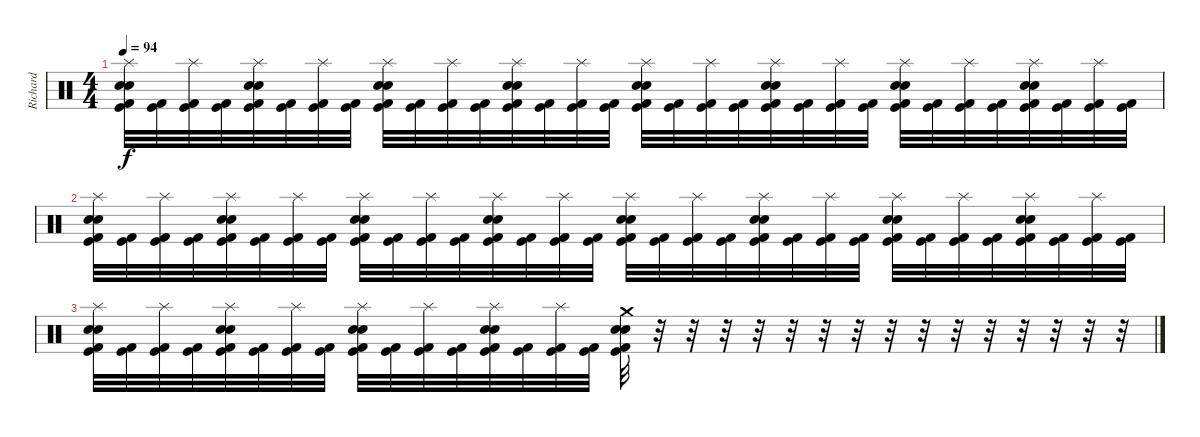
\track ("Richard" "Richard") {instrument percussion}
\staff {score}
\articulation defaults
\ts (4 4)
\tempo 94
\clef neutral
\ks c
("Splash (hit)" "Snare (hit) 2" "Electric Snare (hit)" "Kick (hit)" "Kick (hit) 2").32{dy f} ("Kick (hit)" "Kick (hit) 2").32 ("Splash (hit)" "Kick (hit)" "Kick (hit) 2").32 ("Kick (hit)" "Kick (hit) 2").32 ("Splash (hit)" "Snare (hit) 2" "Electric Snare (hit)" "Kick (hit)" "Kick (hit) 2").32 ("Kick (hit)" "Kick (hit) 2").32 ("Splash (hit)" "Kick (hit)" "Kick (hit) 2").32 ("Kick (hit)" "Kick (hit) 2").32 ("Splash (hit)" "Snare (hit) 2" "Electric Snare (hit)" "Kick (hit)" "Kick (hit) 2").32 ("Kick (hit)" "Kick (hit) 2").32 ("Splash (hit)" "Kick (hit)" "Kick (hit) 2").32 ("Kick (hit)" "Kick (hit) 2").32 ("Splash (hit)" "Snare (hit) 2" "Electric Snare (hit)" "Kick (hit)" "Kick (hit) 2").32 ("Kick (hit)" "Kick (hit) 2").32 ("Splash (hit)" "Kick (hit)" "Kick (hit) 2").32 ("Kick (hit)" "Kick (hit) 2").32 ("Splash (hit)" "Snare (hit) 2" "Electric Snare (hit)" "Kick (hit)" "Kick (hit) 2").32 ("Kick (hit)" "Kick (hit) 2").32 ("Splash (hit)" "Kick (hit)" "Kick (hit) 2").32 ("Kick (hit)" "Kick (hit) 2").32 ("Splash (hit)" "Snare (hit) 2" "Electric Snare (hit)" "Kick (hit)" "Kick (hit) 2").32 ("Kick (hit)" "Kick (hit) 2").32 ("Splash (hit)" "Kick (hit)" "Kick (hit) 2").32 ("Kick (hit)" "Kick (hit) 2").32 ("Splash (hit)" "Snare (hit) 2" "Electric Snare (hit)" "Kick (hit)" "Kick (hit) 2").32 ("Kick (hit)" "Kick (hit) 2").32 ("Splash (hit)" "Kick (hit)" "Kick (hit) 2").32 ("Kick (hit)" "Kick (hit) 2").32 ("Splash (hit)" "Snare (hit) 2" "Electric Snare (hit)" "Kick (hit)" "Kick (hit) 2").32 ("Kick (hit)" "Kick (hit) 2").32 ("Splash (hit)" "Kick (hit)" "Kick (hit) 2").32 ("Kick (hit)" "Kick (hit) 2").32 |
("Splash (hit)" "Snare (hit) 2" "Electric Snare (hit)" "Kick (hit)" "Kick (hit) 2").32 ("Kick (hit)" "Kick (hit) 2").32 ("Splash (hit)" "Kick (hit)" "Kick (hit) 2").32 ("Kick (hit)" "Kick (hit) 2").32 ("Splash (hit)" "Snare (hit) 2" "Electric Snare (hit)" "Kick (hit)" "Kick (hit) 2").32 ("Kick (hit)" "Kick (hit) 2").32 ("Splash (hit)" "Kick (hit)" "Kick (hit) 2").32 ("Kick (hit)" "Kick (hit) 2").32 ("Splash (hit)" "Snare (hit) 2" "Electric Snare (hit)" "Kick (hit)" "Kick (hit) 2").32 ("Kick (hit)" "Kick (hit) 2").32 ("Splash (hit)" "Kick (hit)" "Kick (hit) 2").32 ("Kick (hit)" "Kick (hit) 2").32 ("Splash (hit)" "Snare (hit) 2" "Electric Snare (hit)" "Kick (hit)" "Kick (hit) 2").32 ("Kick (hit)" "Kick (hit) 2").32 ("Splash (hit)" "Kick (hit)" "Kick (hit) 2").32 ("Kick (hit)" "Kick (hit) 2").32 ("Splash (hit)" "Snare (hit) 2" "Electric Snare (hit)" "Kick (hit)" "Kick (hit) 2").32 ("Kick (hit)" "Kick (hit) 2").32 ("Splash (hit)" "Kick (hit)" "Kick (hit) 2").32 ("Kick (hit)" "Kick (hit) 2").32 ("Splash (hit)" "Snare (hit) 2" "Electric Snare (hit)" "Kick (hit)" "Kick (hit) 2").32 ("Kick (hit)" "Kick (hit) 2").32 ("Splash (hit)" "Kick (hit)" "Kick (hit) 2").32 ("Kick (hit)" "Kick (hit) 2").32 ("Splash (hit)" "Snare (hit) 2" "Electric Snare (hit)" "Kick (hit)" "Kick (hit) 2").32 ("Kick (hit)" "Kick (hit) 2").32 ("Splash (hit)" "Kick (hit)" "Kick (hit) 2").32 ("Kick (hit)" "Kick (hit) 2").32 ("Splash (hit)" "Snare (hit) 2" "Electric Snare (hit)" "Kick (hit)" "Kick (hit) 2").32 ("Kick (hit)" "Kick (hit) 2").32 ("Splash (hit)" "Kick (hit)" "Kick (hit) 2").32 ("Kick (hit)" "Kick (hit) 2").32 |
("Splash (hit)" "Snare (hit) 2" "Electric Snare (hit)" "Kick (hit)" "Kick (hit) 2").32 ("Kick (hit)" "Kick (hit) 2").32 ("Splash (hit)" "Kick (hit)" "Kick (hit) 2").32 ("Kick (hit)" "Kick (hit) 2").32 ("Splash (hit)" "Snare (hit) 2" "Electric Snare (hit)" "Kick (hit)" "Kick (hit) 2").32 ("Kick (hit)" "Kick (hit) 2").32 ("Splash (hit)" "Kick (hit)" "Kick (hit) 2").32 ("Kick (hit)" "Kick (hit) 2").32 ("Splash (hit)" "Snare (hit) 2" "Electric Snare (hit)" "Kick (hit)" "Kick (hit) 2").32 ("Kick (hit)" "Kick (hit) 2").32 ("Splash (hit)" "Kick (hit)" "Kick (hit) 2").32 ("Kick (hit)" "Kick (hit) 2").32 ("Splash (hit)" "Snare (hit) 2" "Electric Snare (hit)" "Kick (hit)" "Kick (hit) 2").32 ("Kick (hit)" "Kick (hit) 2").32 ("Splash (hit)" "Kick (hit)" "Kick (hit) 2").32 ("Kick (hit)" "Kick (hit) 2").32 ("Crash medium (hit)" "Snare (hit) 2" "Electric Snare (hit)" "Kick (hit)" "Kick (hit) 2").32 r.32 r.32 r.32 r.32 r.32 r.32 r.32 r.32 r.32 r.32 r.32 r.32 r.32 r.32 r.32
